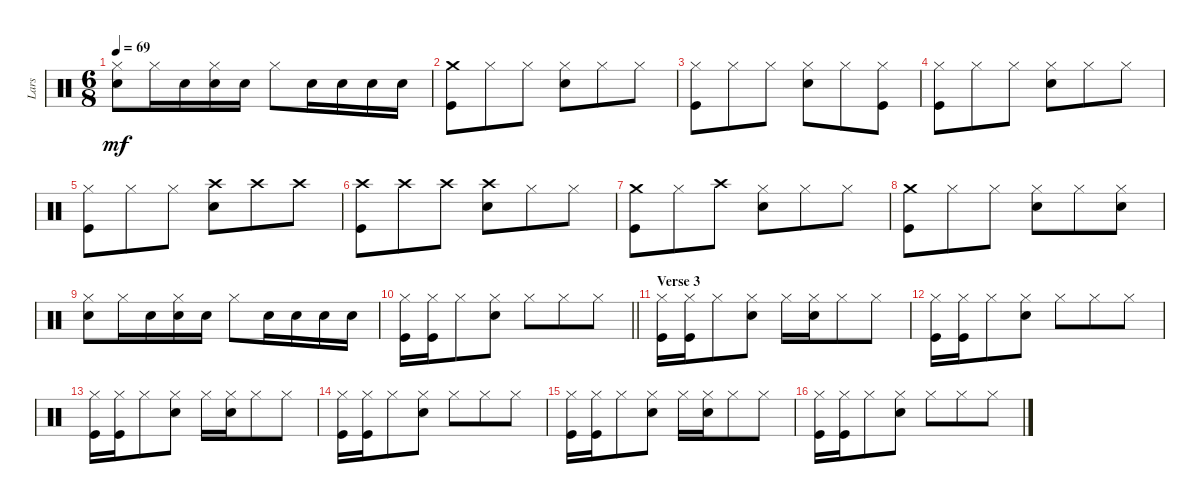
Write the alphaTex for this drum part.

\track ("Lars" "Lars") {instrument percussion}
\staff {score}
\articulation defaults
\ts (6 8)
\tempo 69
\clef neutral
\ks c
("Hi-Hat (closed)" "Snare (hit) 2").8{dy mf} "Hi-Hat (closed)".16 "Snare (hit) 2".16 ("Hi-Hat (closed)" "Snare (hit) 2").16 "Snare (hit) 2".16 "Hi-Hat (closed)".8 "Snare (hit) 2".16 "Snare (hit) 2".16 "Snare (hit) 2".16 "Snare (hit) 2".16 |
("Crash medium (hit)" "Kick (hit)").8 "Hi-Hat (closed)".8 "Hi-Hat (closed)".8 ("Hi-Hat (closed)" "Snare (hit) 2").8 "Hi-Hat (closed)".8 "Hi-Hat (closed)".8 |
("Hi-Hat (closed)" "Kick (hit)").8 "Hi-Hat (closed)".8 "Hi-Hat (closed)".8 ("Hi-Hat (closed)" "Snare (hit) 2").8 "Hi-Hat (closed)".8 ("Hi-Hat (closed)" "Kick (hit)").8 |
("Hi-Hat (closed)" "Kick (hit)").8 "Hi-Hat (closed)".8 "Hi-Hat (closed)".8 ("Hi-Hat (closed)" "Snare (hit) 2").8 "Hi-Hat (closed)".8 "Hi-Hat (closed)".8 |
("Hi-Hat (closed)" "Kick (hit)").8 "Hi-Hat (closed)".8 "Hi-Hat (closed)".8 ("Snare (hit) 2" "Crash high (hit)").8 "Crash high (hit)".8 "Crash high (hit)".8 |
("Kick (hit)" "Crash high (hit)").8 "Crash high (hit)".8 "Crash high (hit)".8 ("Snare (hit) 2" "Crash high (hit)").8 "Hi-Hat (closed)".8 "Hi-Hat (closed)".8 |
("Crash medium (hit)" "Kick (hit)").8 "Hi-Hat (closed)".8 "Crash high (hit)".8 ("Hi-Hat (closed)" "Snare (hit) 2").8 "Hi-Hat (closed)".8 "Hi-Hat (closed)".8 |
("Crash medium (hit)" "Kick (hit)").8 "Hi-Hat (closed)".8 "Hi-Hat (closed)".8 ("Hi-Hat (closed)" "Snare (hit) 2").8 "Hi-Hat (closed)".8 ("Hi-Hat (closed)" "Snare (hit) 2").8 |
("Hi-Hat (closed)" "Snare (hit) 2").8 "Hi-Hat (closed)".16 "Snare (hit) 2".16 ("Hi-Hat (closed)" "Snare (hit) 2").16 "Snare (hit) 2".16 "Hi-Hat (closed)".8 "Snare (hit) 2".16 "Snare (hit) 2".16 "Snare (hit) 2".16 "Snare (hit) 2".16 |
\barLineRight lightlight
("Hi-Hat (closed)" "Kick (hit)").16 ("Hi-Hat (closed)" "Kick (hit)").16 "Hi-Hat (closed)".8 ("Hi-Hat (closed)" "Snare (hit) 2").8 "Hi-Hat (closed)".8 "Hi-Hat (closed)".8 "Hi-Hat (closed)".8 |
\section ("" "Verse 3")
("Hi-Hat (closed)" "Kick (hit)").16 ("Hi-Hat (closed)" "Kick (hit)").16 "Hi-Hat (closed)".8 ("Hi-Hat (closed)" "Snare (hit) 2").8 "Hi-Hat (closed)".16 ("Hi-Hat (closed)" "Snare (hit) 2").16 "Hi-Hat (closed)".8 "Hi-Hat (closed)".8 |
("Hi-Hat (closed)" "Kick (hit)").16 ("Hi-Hat (closed)" "Kick (hit)").16 "Hi-Hat (closed)".8 ("Hi-Hat (closed)" "Snare (hit) 2").8 "Hi-Hat (closed)".8 "Hi-Hat (closed)".8 "Hi-Hat (closed)".8 |
("Hi-Hat (closed)" "Kick (hit)").16 ("Hi-Hat (closed)" "Kick (hit)").16 "Hi-Hat (closed)".8 ("Hi-Hat (closed)" "Snare (hit) 2").8 "Hi-Hat (closed)".16 ("Hi-Hat (closed)" "Snare (hit) 2").16 "Hi-Hat (closed)".8 "Hi-Hat (closed)".8 |
("Hi-Hat (closed)" "Kick (hit)").16 ("Hi-Hat (closed)" "Kick (hit)").16 "Hi-Hat (closed)".8 ("Hi-Hat (closed)" "Snare (hit) 2").8 "Hi-Hat (closed)".8 "Hi-Hat (closed)".8 "Hi-Hat (closed)".8 |
("Hi-Hat (closed)" "Kick (hit)").16 ("Hi-Hat (closed)" "Kick (hit)").16 "Hi-Hat (closed)".8 ("Hi-Hat (closed)" "Snare (hit) 2").8 "Hi-Hat (closed)".16 ("Hi-Hat (closed)" "Snare (hit) 2").16 "Hi-Hat (closed)".8 "Hi-Hat (closed)".8 |
("Hi-Hat (closed)" "Kick (hit)").16 ("Hi-Hat (closed)" "Kick (hit)").16 "Hi-Hat (closed)".8 ("Hi-Hat (closed)" "Snare (hit) 2").8 "Hi-Hat (closed)".8 "Hi-Hat (closed)".8 "Hi-Hat (closed)".8
